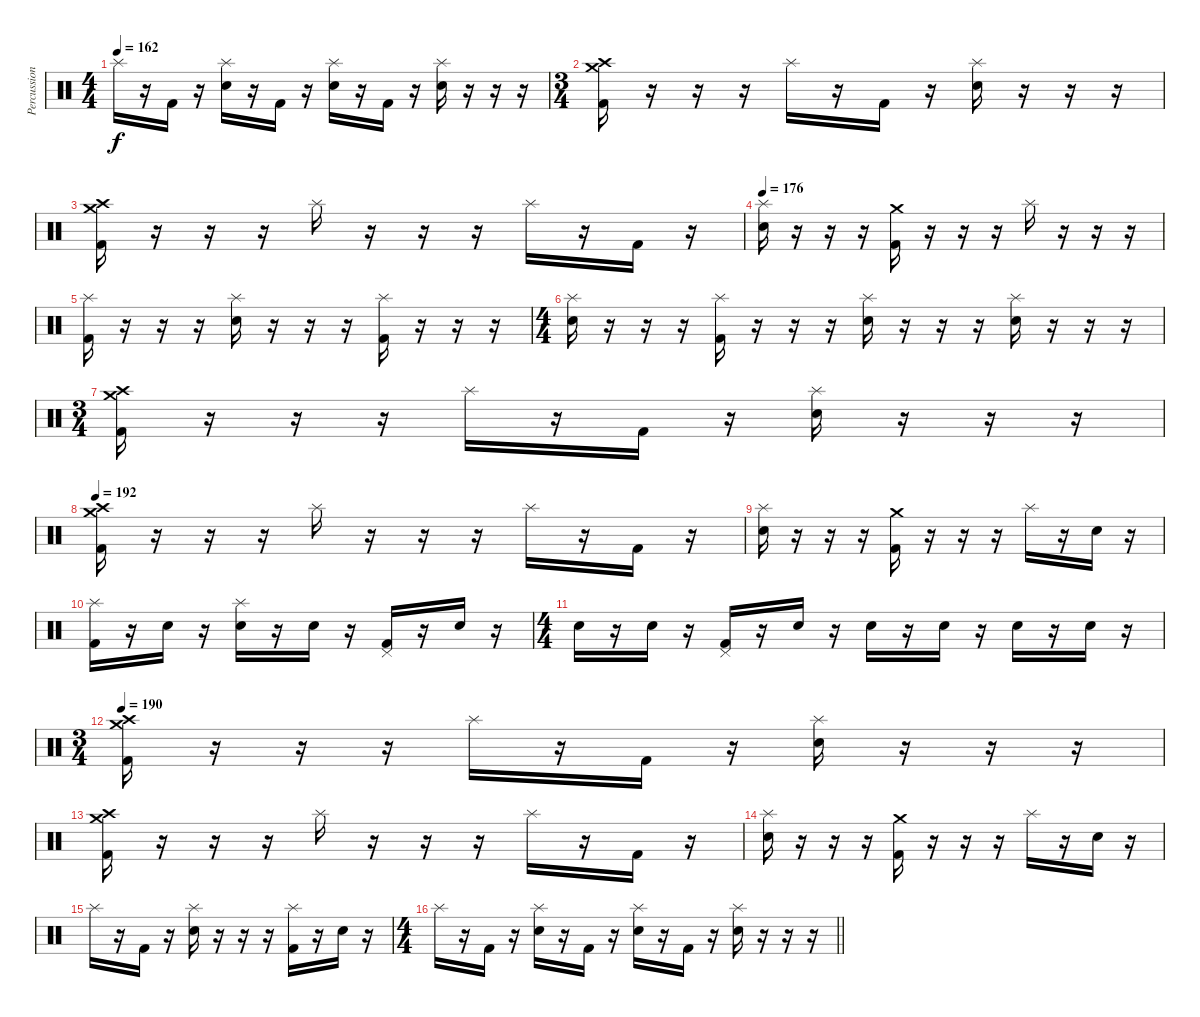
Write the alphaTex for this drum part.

\track ("Percussion" "Percussion") {instrument percussion}
\staff {score}
\articulation defaults
\ts (4 4)
\tempo 162
\clef neutral
\ks c "Splash (hit)".16{dy f}
r.16 "Kick (hit) 2".16 r.16 ("Splash (hit)" "Electric Snare (hit)").16 r.16 "Kick (hit) 2".16 r.16 ("Splash (hit)" "Electric Snare (hit)").16 r.16 "Kick (hit) 2".16 r.16 ("Splash (hit)" "Electric Snare (hit)").16 r.16 r.16 r.16 |
\ts (3 4)
("Crash medium (hit)" "Crash high (hit)" "Kick (hit) 2").16 r.16 r.16 r.16 "Splash (hit)".16 r.16 "Kick (hit) 2".16 r.16 ("Splash (hit)" "Electric Snare (hit)").16 r.16 r.16 r.16 |
("Crash medium (hit)" "Crash high (hit)" "Kick (hit) 2").16 r.16 r.16 r.16 "Splash (hit)".16 r.16 r.16 r.16 "Splash (hit)".16 r.16 "Kick (hit) 2".16 r.16 |
\tempo 176
("Splash (hit)" "Electric Snare (hit)").16 r.16 r.16 r.16 ("Crash medium (hit)" "Kick (hit) 2").16 r.16 r.16 r.16 "Splash (hit)".16 r.16 r.16 r.16 |
("Splash (hit)" "Kick (hit) 2").16 r.16 r.16 r.16 ("Splash (hit)" "Electric Snare (hit)").16 r.16 r.16 r.16 ("Splash (hit)" "Kick (hit) 2").16 r.16 r.16 r.16 |
\ts (4 4)
("Splash (hit)" "Electric Snare (hit)").16 r.16 r.16 r.16 ("Splash (hit)" "Kick (hit) 2").16 r.16 r.16 r.16 ("Splash (hit)" "Electric Snare (hit)").16 r.16 r.16 r.16 ("Splash (hit)" "Electric Snare (hit)").16 r.16 r.16 r.16 |
\ts (3 4)
("Crash medium (hit)" "Crash high (hit)" "Kick (hit) 2").16 r.16 r.16 r.16 "Splash (hit)".16 r.16 "Kick (hit) 2".16 r.16 ("Splash (hit)" "Electric Snare (hit)").16 r.16 r.16 r.16 |
\tempo 192
("Crash medium (hit)" "Crash high (hit)" "Kick (hit) 2").16 r.16 r.16 r.16 "Splash (hit)".16 r.16 r.16 r.16 "Splash (hit)".16 r.16 "Kick (hit) 2".16 r.16 |
("Splash (hit)" "Electric Snare (hit)").16 r.16 r.16 r.16 ("Crash medium (hit)" "Kick (hit) 2").16 r.16 r.16 r.16 "Splash (hit)".16 r.16 "Electric Snare (hit)".16 r.16 |
("Splash (hit)" "Kick (hit) 2").16 r.16 "Electric Snare (hit)".16 r.16 ("Splash (hit)" "Electric Snare (hit)").16 r.16 "Electric Snare (hit)".16 r.16 ("Pedal Hi-Hat (hit)" "Kick (hit) 2").16 r.16 "Electric Snare (hit)".16 r.16 |
\ts (4 4)
"Electric Snare (hit)".16 r.16 "Electric Snare (hit)".16 r.16 ("Pedal Hi-Hat (hit)" "Kick (hit) 2").16 r.16 "Electric Snare (hit)".16 r.16 "Electric Snare (hit)".16 r.16 "Electric Snare (hit)".16 r.16 "Electric Snare (hit)".16 r.16 "Electric Snare (hit)".16 r.16 |
\ts (3 4)
\tempo 190
("Crash medium (hit)" "Crash high (hit)" "Kick (hit) 2").16 r.16 r.16 r.16 "Splash (hit)".16 r.16 "Kick (hit) 2".16 r.16 ("Splash (hit)" "Electric Snare (hit)").16 r.16 r.16 r.16 |
("Crash medium (hit)" "Crash high (hit)" "Kick (hit) 2").16 r.16 r.16 r.16 "Splash (hit)".16 r.16 r.16 r.16 "Splash (hit)".16 r.16 "Kick (hit) 2".16 r.16 |
("Splash (hit)" "Electric Snare (hit)").16 r.16 r.16 r.16 ("Crash medium (hit)" "Kick (hit) 2").16 r.16 r.16 r.16 "Splash (hit)".16 r.16 "Electric Snare (hit)".16 r.16 |
"Splash (hit)".16 r.16 "Kick (hit) 2".16 r.16 ("Splash (hit)" "Electric Snare (hit)").16 r.16 r.16 r.16 ("Splash (hit)" "Kick (hit) 2").16 r.16 "Electric Snare (hit)".16 r.16 |
\ts (4 4)
\barLineRight lightlight "Splash (hit)".16
r.16 "Kick (hit) 2".16 r.16 ("Splash (hit)" "Electric Snare (hit)").16 r.16 "Kick (hit) 2".16 r.16 ("Splash (hit)" "Electric Snare (hit)").16 r.16 "Kick (hit) 2".16 r.16 ("Splash (hit)" "Electric Snare (hit)").16 r.16 r.16 r.16
